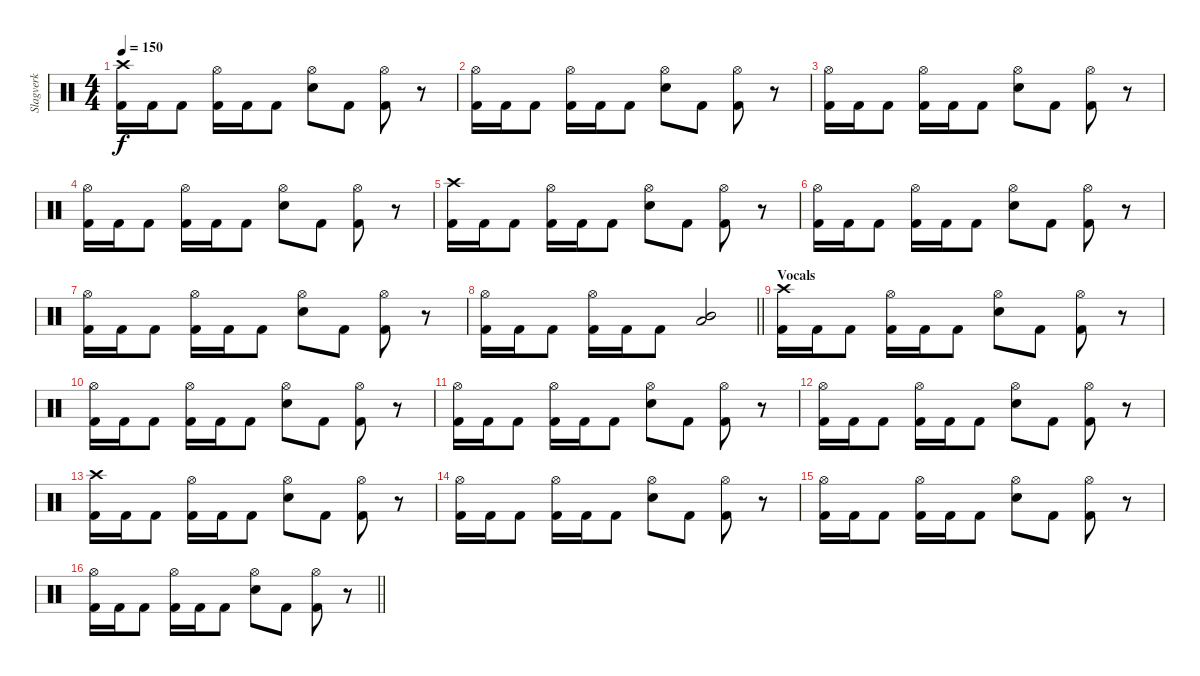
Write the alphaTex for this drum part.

\track ("Slagverk" "Slagverk") {instrument percussion}
\staff {score}
\articulation defaults
\ts (4 4)
\section ("" "")
\tempo 150
\clef neutral
\ks c
("Crash high (hit)" "Kick (hit) 2").16{dy f} "Kick (hit) 2".16 "Kick (hit) 2".8 ("Hi-Hat (open)" "Kick (hit) 2").16 "Kick (hit) 2".16 "Kick (hit) 2".8 ("Hi-Hat (open)" "Electric Snare (hit)").8 "Kick (hit) 2".8 ("Hi-Hat (open)" "Kick (hit) 2").8 r.8 |
("Hi-Hat (open)" "Kick (hit) 2").16 "Kick (hit) 2".16 "Kick (hit) 2".8 ("Hi-Hat (open)" "Kick (hit) 2").16 "Kick (hit) 2".16 "Kick (hit) 2".8 ("Hi-Hat (open)" "Electric Snare (hit)").8 "Kick (hit) 2".8 ("Hi-Hat (open)" "Kick (hit) 2").8 r.8 |
("Hi-Hat (open)" "Kick (hit) 2").16 "Kick (hit) 2".16 "Kick (hit) 2".8 ("Hi-Hat (open)" "Kick (hit) 2").16 "Kick (hit) 2".16 "Kick (hit) 2".8 ("Hi-Hat (open)" "Electric Snare (hit)").8 "Kick (hit) 2".8 ("Hi-Hat (open)" "Kick (hit) 2").8 r.8 |
("Hi-Hat (open)" "Kick (hit) 2").16 "Kick (hit) 2".16 "Kick (hit) 2".8 ("Hi-Hat (open)" "Kick (hit) 2").16 "Kick (hit) 2".16 "Kick (hit) 2".8 ("Hi-Hat (open)" "Electric Snare (hit)").8 "Kick (hit) 2".8 ("Hi-Hat (open)" "Kick (hit) 2").8 r.8 |
("Crash high (hit)" "Kick (hit) 2").16 "Kick (hit) 2".16 "Kick (hit) 2".8 ("Hi-Hat (open)" "Kick (hit) 2").16 "Kick (hit) 2".16 "Kick (hit) 2".8 ("Hi-Hat (open)" "Electric Snare (hit)").8 "Kick (hit) 2".8 ("Hi-Hat (open)" "Kick (hit) 2").8 r.8 |
("Hi-Hat (open)" "Kick (hit) 2").16 "Kick (hit) 2".16 "Kick (hit) 2".8 ("Hi-Hat (open)" "Kick (hit) 2").16 "Kick (hit) 2".16 "Kick (hit) 2".8 ("Hi-Hat (open)" "Electric Snare (hit)").8 "Kick (hit) 2".8 ("Hi-Hat (open)" "Kick (hit) 2").8 r.8 |
("Hi-Hat (open)" "Kick (hit) 2").16 "Kick (hit) 2".16 "Kick (hit) 2".8 ("Hi-Hat (open)" "Kick (hit) 2").16 "Kick (hit) 2".16 "Kick (hit) 2".8 ("Hi-Hat (open)" "Electric Snare (hit)").8 "Kick (hit) 2".8 ("Hi-Hat (open)" "Kick (hit) 2").8 r.8 |
\barLineRight lightlight
("Hi-Hat (open)" "Kick (hit) 2").16 "Kick (hit) 2".16 "Kick (hit) 2".8 ("Hi-Hat (open)" "Kick (hit) 2").16 "Kick (hit) 2".16 "Kick (hit) 2".8 ("Mid Tom (hit)" "Low Tom (hit)").2 |
\section ("" "Vocals")
("Crash high (hit)" "Kick (hit) 2").16 "Kick (hit) 2".16 "Kick (hit) 2".8 ("Hi-Hat (open)" "Kick (hit) 2").16 "Kick (hit) 2".16 "Kick (hit) 2".8 ("Hi-Hat (open)" "Electric Snare (hit)").8 "Kick (hit) 2".8 ("Hi-Hat (open)" "Kick (hit) 2").8 r.8 |
("Hi-Hat (open)" "Kick (hit) 2").16 "Kick (hit) 2".16 "Kick (hit) 2".8 ("Hi-Hat (open)" "Kick (hit) 2").16 "Kick (hit) 2".16 "Kick (hit) 2".8 ("Hi-Hat (open)" "Electric Snare (hit)").8 "Kick (hit) 2".8 ("Hi-Hat (open)" "Kick (hit) 2").8 r.8 |
("Hi-Hat (open)" "Kick (hit) 2").16 "Kick (hit) 2".16 "Kick (hit) 2".8 ("Hi-Hat (open)" "Kick (hit) 2").16 "Kick (hit) 2".16 "Kick (hit) 2".8 ("Hi-Hat (open)" "Electric Snare (hit)").8 "Kick (hit) 2".8 ("Hi-Hat (open)" "Kick (hit) 2").8 r.8 |
("Hi-Hat (open)" "Kick (hit) 2").16 "Kick (hit) 2".16 "Kick (hit) 2".8 ("Hi-Hat (open)" "Kick (hit) 2").16 "Kick (hit) 2".16 "Kick (hit) 2".8 ("Hi-Hat (open)" "Electric Snare (hit)").8 "Kick (hit) 2".8 ("Hi-Hat (open)" "Kick (hit) 2").8 r.8 |
("Crash high (hit)" "Kick (hit) 2").16 "Kick (hit) 2".16 "Kick (hit) 2".8 ("Hi-Hat (open)" "Kick (hit) 2").16 "Kick (hit) 2".16 "Kick (hit) 2".8 ("Hi-Hat (open)" "Electric Snare (hit)").8 "Kick (hit) 2".8 ("Hi-Hat (open)" "Kick (hit) 2").8 r.8 |
("Hi-Hat (open)" "Kick (hit) 2").16 "Kick (hit) 2".16 "Kick (hit) 2".8 ("Hi-Hat (open)" "Kick (hit) 2").16 "Kick (hit) 2".16 "Kick (hit) 2".8 ("Hi-Hat (open)" "Electric Snare (hit)").8 "Kick (hit) 2".8 ("Hi-Hat (open)" "Kick (hit) 2").8 r.8 |
("Hi-Hat (open)" "Kick (hit) 2").16 "Kick (hit) 2".16 "Kick (hit) 2".8 ("Hi-Hat (open)" "Kick (hit) 2").16 "Kick (hit) 2".16 "Kick (hit) 2".8 ("Hi-Hat (open)" "Electric Snare (hit)").8 "Kick (hit) 2".8 ("Hi-Hat (open)" "Kick (hit) 2").8 r.8 |
\barLineRight lightlight
("Hi-Hat (open)" "Kick (hit) 2").16 "Kick (hit) 2".16 "Kick (hit) 2".8 ("Hi-Hat (open)" "Kick (hit) 2").16 "Kick (hit) 2".16 "Kick (hit) 2".8 ("Hi-Hat (open)" "Electric Snare (hit)").8 "Kick (hit) 2".8 ("Hi-Hat (open)" "Kick (hit) 2").8 r.8
